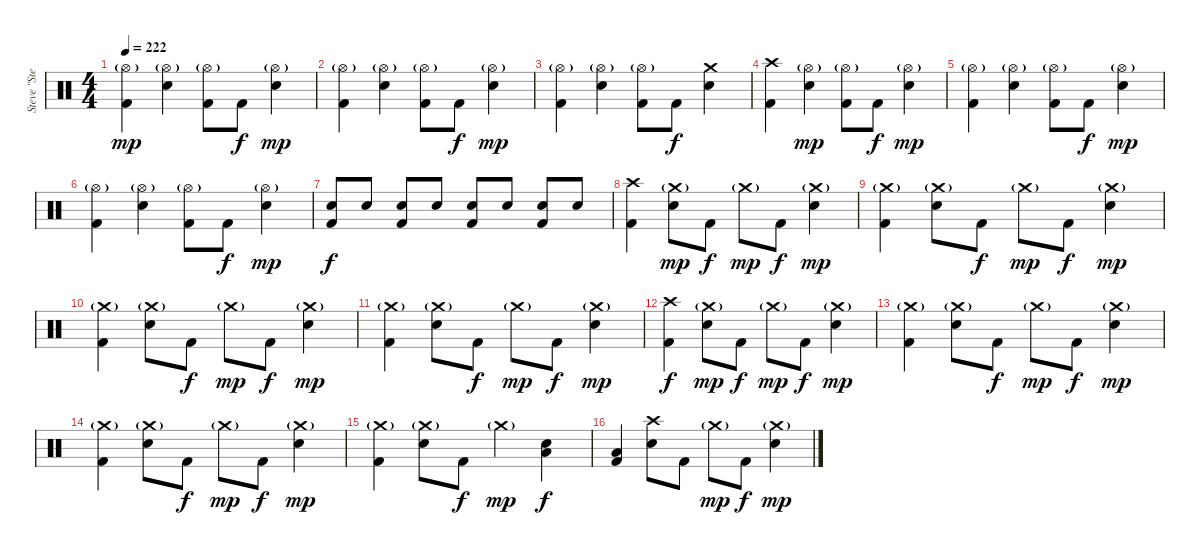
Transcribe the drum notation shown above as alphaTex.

\track ("Steve \"Stevo32\" Jocz " "Steve \"Ste") {instrument percussion}
\staff {score}
\articulation defaults
\ts (4 4)
\tempo 222
\clef neutral
\ks c
("Hi-Hat (open)"{g} "Kick (hit) 2").4{dy mp} ("Hi-Hat (open)"{g} "Electric Snare (hit)").4 ("Hi-Hat (open)"{g} "Kick (hit) 2").8 "Kick (hit) 2".8{dy f} ("Hi-Hat (open)"{g} "Electric Snare (hit)").4{dy mp} |
("Hi-Hat (open)"{g} "Kick (hit) 2").4 ("Hi-Hat (open)"{g} "Electric Snare (hit)").4 ("Hi-Hat (open)"{g} "Kick (hit) 2").8 "Kick (hit) 2".8{dy f} ("Hi-Hat (open)"{g} "Electric Snare (hit)").4{dy mp} |
("Hi-Hat (open)"{g} "Kick (hit) 2").4 ("Hi-Hat (open)"{g} "Electric Snare (hit)").4 ("Hi-Hat (open)"{g} "Kick (hit) 2").8 "Kick (hit) 2".8{dy f} ("Crash medium (hit)" "Electric Snare (hit)").4 |
("Crash high (hit)" "Kick (hit) 2").4 ("Hi-Hat (open)"{g} "Electric Snare (hit)").4{dy mp} ("Hi-Hat (open)"{g} "Kick (hit) 2").8 "Kick (hit) 2".8{dy f} ("Hi-Hat (open)"{g} "Electric Snare (hit)").4{dy mp} |
("Hi-Hat (open)"{g} "Kick (hit) 2").4 ("Hi-Hat (open)"{g} "Electric Snare (hit)").4 ("Hi-Hat (open)"{g} "Kick (hit) 2").8 "Kick (hit) 2".8{dy f} ("Hi-Hat (open)"{g} "Electric Snare (hit)").4{dy mp} |
("Hi-Hat (open)"{g} "Kick (hit) 2").4 ("Hi-Hat (open)"{g} "Electric Snare (hit)").4 ("Hi-Hat (open)"{g} "Kick (hit) 2").8 "Kick (hit) 2".8{dy f} ("Hi-Hat (open)"{g} "Electric Snare (hit)").4{dy mp} |
("Electric Snare (hit)" "Kick (hit) 2").8{dy f} "Electric Snare (hit)".8 ("Electric Snare (hit)" "Kick (hit) 2").8 "Electric Snare (hit)".8 ("Electric Snare (hit)" "Kick (hit) 2").8 "Electric Snare (hit)".8 ("Electric Snare (hit)" "Kick (hit) 2").8 "Electric Snare (hit)".8 |
("Crash high (hit)" "Kick (hit) 2").4 ("Crash medium (hit)"{g} "Electric Snare (hit)").8{dy mp} "Kick (hit) 2".8{dy f} "Crash medium (hit)"{g}.8{dy mp} "Kick (hit) 2".8{dy f} ("Crash medium (hit)"{g} "Electric Snare (hit)").4{dy mp} |
("Crash medium (hit)"{g} "Kick (hit) 2").4 ("Crash medium (hit)"{g} "Electric Snare (hit)").8 "Kick (hit) 2".8{dy f} "Crash medium (hit)"{g}.8{dy mp} "Kick (hit) 2".8{dy f} ("Crash medium (hit)"{g} "Electric Snare (hit)").4{dy mp} |
("Crash medium (hit)"{g} "Kick (hit) 2").4 ("Crash medium (hit)"{g} "Electric Snare (hit)").8 "Kick (hit) 2".8{dy f} "Crash medium (hit)"{g}.8{dy mp} "Kick (hit) 2".8{dy f} ("Crash medium (hit)"{g} "Electric Snare (hit)").4{dy mp} |
("Crash medium (hit)"{g} "Kick (hit) 2").4 ("Crash medium (hit)"{g} "Electric Snare (hit)").8 "Kick (hit) 2".8{dy f} "Crash medium (hit)"{g}.8{dy mp} "Kick (hit) 2".8{dy f} ("Crash medium (hit)"{g} "Electric Snare (hit)").4{dy mp} |
("Crash high (hit)" "Kick (hit) 2").4{dy f} ("Crash medium (hit)"{g} "Electric Snare (hit)").8{dy mp} "Kick (hit) 2".8{dy f} "Crash medium (hit)"{g}.8{dy mp} "Kick (hit) 2".8{dy f} ("Crash medium (hit)"{g} "Electric Snare (hit)").4{dy mp} |
("Crash medium (hit)"{g} "Kick (hit) 2").4 ("Crash medium (hit)"{g} "Electric Snare (hit)").8 "Kick (hit) 2".8{dy f} "Crash medium (hit)"{g}.8{dy mp} "Kick (hit) 2".8{dy f} ("Crash medium (hit)"{g} "Electric Snare (hit)").4{dy mp} |
("Crash medium (hit)"{g} "Kick (hit) 2").4 ("Crash medium (hit)"{g} "Electric Snare (hit)").8 "Kick (hit) 2".8{dy f} "Crash medium (hit)"{g}.8{dy mp} "Kick (hit) 2".8{dy f} ("Crash medium (hit)"{g} "Electric Snare (hit)").4{dy mp} |
("Crash medium (hit)"{g} "Kick (hit) 2").4 ("Crash medium (hit)"{g} "Electric Snare (hit)").8 "Kick (hit) 2".8{dy f} "Crash medium (hit)"{g}.4{dy mp} ("Low Tom (hit)" "Electric Snare (hit)").4{dy f} |
("Low Tom (hit)" "Kick (hit) 2").4 ("Crash high (hit)" "Electric Snare (hit)").8 "Kick (hit) 2".8 "Crash medium (hit)"{g}.8{dy mp} "Kick (hit) 2".8{dy f} ("Crash medium (hit)"{g} "Electric Snare (hit)").4{dy mp}
